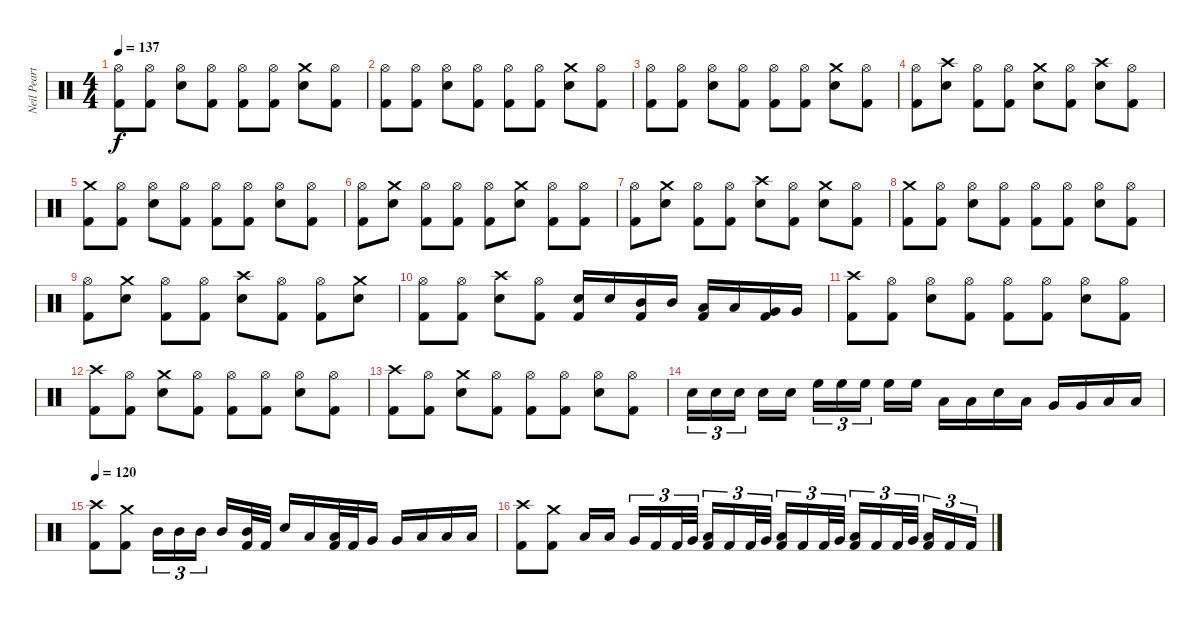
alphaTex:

\track ("Neil Peart" "Neil Peart") {instrument percussion}
\staff {score}
\articulation defaults
\ts (4 4)
\tempo 137
\clef neutral
\ks c
("Hi-Hat (open)" "Kick (hit) 2").8{dy f} ("Hi-Hat (open)" "Kick (hit) 2").8 ("Hi-Hat (open)" "Snare (hit) 2").8 ("Hi-Hat (open)" "Kick (hit) 2").8 ("Hi-Hat (open)" "Kick (hit) 2").8 ("Hi-Hat (open)" "Kick (hit) 2").8 ("Crash medium (hit)" "Snare (hit) 2").8 ("Hi-Hat (open)" "Kick (hit) 2").8 |
("Hi-Hat (open)" "Kick (hit) 2").8 ("Hi-Hat (open)" "Kick (hit) 2").8 ("Hi-Hat (open)" "Snare (hit) 2").8 ("Hi-Hat (open)" "Kick (hit) 2").8 ("Hi-Hat (open)" "Kick (hit) 2").8 ("Hi-Hat (open)" "Kick (hit) 2").8 ("Crash medium (hit)" "Snare (hit) 2").8 ("Hi-Hat (open)" "Kick (hit) 2").8 |
("Hi-Hat (open)" "Kick (hit) 2").8 ("Hi-Hat (open)" "Kick (hit) 2").8 ("Hi-Hat (open)" "Snare (hit) 2").8 ("Hi-Hat (open)" "Kick (hit) 2").8 ("Hi-Hat (open)" "Kick (hit) 2").8 ("Hi-Hat (open)" "Kick (hit) 2").8 ("Crash medium (hit)" "Snare (hit) 2").8 ("Hi-Hat (open)" "Kick (hit) 2").8 |
("Hi-Hat (open)" "Kick (hit) 2").8 ("Crash high (hit)" "Snare (hit) 2").8 ("Hi-Hat (open)" "Kick (hit) 2").8 ("Hi-Hat (open)" "Kick (hit) 2").8 ("Crash medium (hit)" "Snare (hit) 2").8 ("Hi-Hat (open)" "Kick (hit) 2").8 ("Crash high (hit)" "Snare (hit) 2").8 ("Hi-Hat (open)" "Kick (hit) 2").8 |
("Crash medium (hit)" "Kick (hit) 2").8 ("Hi-Hat (open)" "Kick (hit) 2").8 ("Hi-Hat (open)" "Snare (hit) 2").8 ("Hi-Hat (open)" "Kick (hit) 2").8 ("Hi-Hat (open)" "Kick (hit) 2").8 ("Hi-Hat (open)" "Kick (hit) 2").8 ("Hi-Hat (open)" "Snare (hit) 2").8 ("Hi-Hat (open)" "Kick (hit) 2").8 |
("Hi-Hat (open)" "Kick (hit) 2").8 ("Crash medium (hit)" "Snare (hit) 2").8 ("Hi-Hat (open)" "Kick (hit) 2").8 ("Hi-Hat (open)" "Kick (hit) 2").8 ("Hi-Hat (open)" "Kick (hit) 2").8 ("Crash medium (hit)" "Snare (hit) 2").8 ("Hi-Hat (open)" "Kick (hit) 2").8 ("Hi-Hat (open)" "Kick (hit) 2").8 |
("Hi-Hat (open)" "Kick (hit) 2").8 ("Crash medium (hit)" "Snare (hit) 2").8 ("Hi-Hat (open)" "Kick (hit) 2").8 ("Hi-Hat (open)" "Kick (hit) 2").8 ("Crash high (hit)" "Snare (hit) 2").8 ("Hi-Hat (open)" "Kick (hit) 2").8 ("Crash medium (hit)" "Snare (hit) 2").8 ("Hi-Hat (open)" "Kick (hit) 2").8 |
("Crash medium (hit)" "Kick (hit) 2").8 ("Hi-Hat (open)" "Kick (hit) 2").8 ("Hi-Hat (open)" "Snare (hit) 2").8 ("Hi-Hat (open)" "Kick (hit) 2").8 ("Hi-Hat (open)" "Kick (hit) 2").8 ("Hi-Hat (open)" "Kick (hit) 2").8 ("Hi-Hat (open)" "Snare (hit) 2").8 ("Hi-Hat (open)" "Kick (hit) 2").8 |
("Hi-Hat (open)" "Kick (hit) 2").8 ("Crash medium (hit)" "Snare (hit) 2").8 ("Hi-Hat (open)" "Kick (hit) 2").8 ("Hi-Hat (open)" "Kick (hit) 2").8 ("Crash high (hit)" "Snare (hit) 2").8 ("Hi-Hat (open)" "Kick (hit) 2").8 ("Hi-Hat (open)" "Kick (hit) 2").8 ("Crash medium (hit)" "Snare (hit) 2").8 |
("Hi-Hat (open)" "Kick (hit) 2").8 ("Hi-Hat (open)" "Kick (hit) 2").8 ("Crash high (hit)" "Snare (hit) 2").8 ("Hi-Hat (open)" "Kick (hit) 2").8 ("Snare (hit) 2" "Kick (hit) 2").16 "Snare (hit) 2".16 ("Mid Tom (hit)" "Kick (hit) 2").16 "Mid Tom (hit)".16 ("Low Tom (hit)" "Kick (hit) 2").16 "Low Tom (hit)".16 ("Very Low Tom (hit)" "Kick (hit) 2").16 "Very Low Tom (hit)".16 |
("Crash high (hit)" "Kick (hit) 2").8 ("Hi-Hat (open)" "Kick (hit) 2").8 ("Hi-Hat (open)" "Snare (hit) 2").8 ("Hi-Hat (open)" "Kick (hit) 2").8 ("Hi-Hat (open)" "Kick (hit) 2").8 ("Hi-Hat (open)" "Kick (hit) 2").8 ("Hi-Hat (open)" "Snare (hit) 2").8 ("Hi-Hat (open)" "Kick (hit) 2").8 |
("Crash high (hit)" "Kick (hit) 2").8 ("Hi-Hat (open)" "Kick (hit) 2").8 ("Crash medium (hit)" "Snare (hit) 2").8 ("Hi-Hat (open)" "Kick (hit) 2").8 ("Hi-Hat (open)" "Kick (hit) 2").8 ("Hi-Hat (open)" "Kick (hit) 2").8 ("Hi-Hat (open)" "Snare (hit) 2").8 ("Hi-Hat (open)" "Kick (hit) 2").8 |
("Crash high (hit)" "Kick (hit) 2").8 ("Hi-Hat (open)" "Kick (hit) 2").8 ("Crash medium (hit)" "Snare (hit) 2").8 ("Hi-Hat (open)" "Kick (hit) 2").8 ("Hi-Hat (open)" "Kick (hit) 2").8 ("Hi-Hat (open)" "Kick (hit) 2").8 ("Hi-Hat (open)" "Snare (hit) 2").8 ("Hi-Hat (open)" "Kick (hit) 2").8 |
"Snare (hit) 2".16{tu (3 2)} "Snare (hit) 2".16{tu (3 2)} "Snare (hit) 2".16{tu (3 2) beam splitsecondary} "Snare (hit) 2".16 "Snare (hit) 2".16 "High Floor Tom (hit)".16{tu (3 2)} "High Floor Tom (hit)".16{tu (3 2)} "High Floor Tom (hit)".16{tu (3 2) beam splitsecondary} "High Floor Tom (hit)".16 "High Floor Tom (hit)".16 "Low Tom (hit)".16 "Low Tom (hit)".16 "Snare (hit) 2".16 "Low Tom (hit)".16 "Very Low Tom (hit)".16 "Very Low Tom (hit)".16 "Low Floor Tom (hit)".16 "Low Floor Tom (hit)".16 |
\tempo 120
("Crash high (hit)" "Kick (hit) 2").8 ("Crash medium (hit)" "Kick (hit) 2").8 "Mid Tom (hit)".16{tu (3 2)} "Mid Tom (hit)".16{tu (3 2)} "Mid Tom (hit)".16{tu (3 2) beam splitsecondary} "Mid Tom (hit)".16 ("Mid Tom (hit)" "Kick (hit) 2").32 "Kick (hit) 2".32 "Snare (hit) 2".16 "Low Tom (hit)".16 ("Low Tom (hit)" "Kick (hit) 2").32 "Kick (hit) 2".32 "Very Low Tom (hit)".16 "Very Low Tom (hit)".16 "Low Floor Tom (hit)".16 "Low Floor Tom (hit)".16 "Low Floor Tom (hit)".16 |
("Crash high (hit)" "Kick (hit) 2").8 ("Crash medium (hit)" "Kick (hit) 2").8 "Low Tom (hit)".16 "Low Tom (hit)".16{beam splitsecondary} "Very Low Tom (hit)".16{tu (3 2)} "Kick (hit) 2".16{tu (3 2)} "Kick (hit) 2".32{tu (3 2)} "Very Low Tom (hit)".32{tu (3 2)} ("Low Tom (hit)" "Kick (hit) 2").16{tu (3 2)} "Kick (hit) 2".16{tu (3 2)} "Kick (hit) 2".32{tu (3 2)} "Very Low Tom (hit)".32{tu (3 2) beam splitsecondary} ("Low Tom (hit)" "Kick (hit) 2").16{tu (3 2)} "Kick (hit) 2".16{tu (3 2)} "Kick (hit) 2".32{tu (3 2)} "Very Low Tom (hit)".32{tu (3 2)} ("Low Tom (hit)" "Kick (hit) 2").16{tu (3 2)} "Kick (hit) 2".16{tu (3 2)} "Kick (hit) 2".32{tu (3 2)} "Very Low Tom (hit)".32{tu (3 2) beam splitsecondary} ("Low Tom (hit)" "Kick (hit) 2").16{tu (3 2)} "Kick (hit) 2".16{tu (3 2)} "Kick (hit) 2".16{tu (3 2)}
